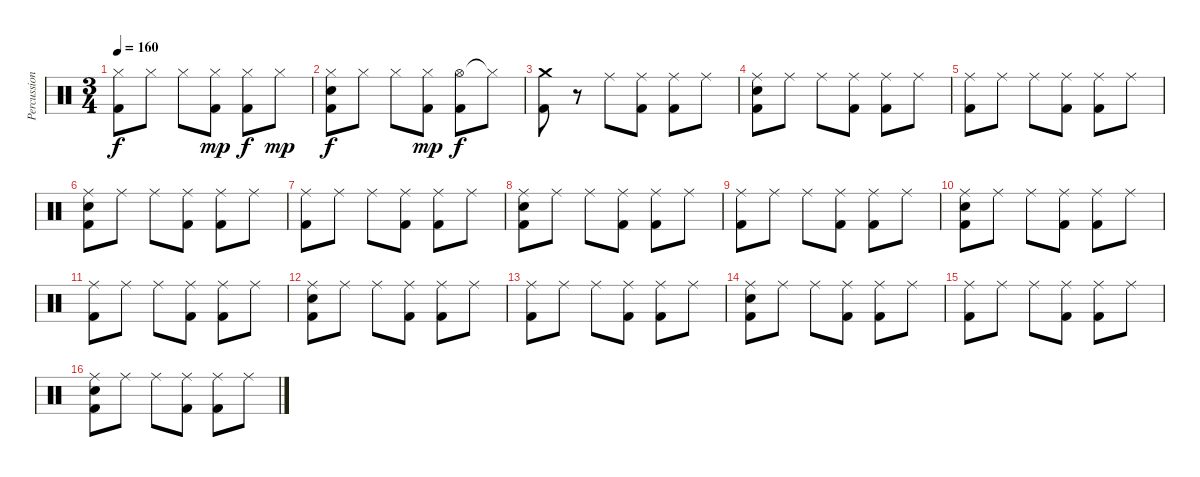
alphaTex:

\track ("Percussion" "Percussion") {instrument percussion}
\staff {score}
\articulation defaults
\ts (3 4)
\tempo 160
\clef neutral
\ks c
("Hi-Hat (closed)" "Kick (hit) 2").8{dy f} "Hi-Hat (closed)".8 "Hi-Hat (closed)".8 ("Hi-Hat (closed)" "Kick (hit) 2").8{dy mp} ("Hi-Hat (closed)" "Kick (hit) 2").8{dy f} "Hi-Hat (closed)".8{dy mp} |
("Hi-Hat (closed)" "Electric Snare (hit)" "Kick (hit) 2").8{dy f} "Hi-Hat (closed)".8 "Hi-Hat (closed)".8 ("Hi-Hat (closed)" "Kick (hit) 2").8{dy mp} ("Hi-Hat (open)" "Kick (hit) 2").8{dy f} "Hi-Hat (closed)"{t}.8 |
("Crash medium (hit)" "Kick (hit) 2").8 r.8 "Ride (middle)".8 ("Ride (middle)" "Kick (hit) 2").8 ("Ride (middle)" "Kick (hit) 2").8 "Ride (middle)".8 |
("Ride (middle)" "Electric Snare (hit)" "Kick (hit) 2").8 "Ride (middle)".8 "Ride (middle)".8 ("Ride (middle)" "Kick (hit) 2").8 ("Ride (middle)" "Kick (hit) 2").8 "Ride (middle)".8 |
("Ride (middle)" "Kick (hit) 2").8 "Ride (middle)".8 "Ride (middle)".8 ("Ride (middle)" "Kick (hit) 2").8 ("Ride (middle)" "Kick (hit) 2").8 "Ride (middle)".8 |
("Ride (middle)" "Electric Snare (hit)" "Kick (hit) 2").8 "Ride (middle)".8 "Ride (middle)".8 ("Ride (middle)" "Kick (hit) 2").8 ("Ride (middle)" "Kick (hit) 2").8 "Ride (middle)".8 |
("Ride (middle)" "Kick (hit) 2").8 "Ride (middle)".8 "Ride (middle)".8 ("Ride (middle)" "Kick (hit) 2").8 ("Ride (middle)" "Kick (hit) 2").8 "Ride (middle)".8 |
("Ride (middle)" "Electric Snare (hit)" "Kick (hit) 2").8 "Ride (middle)".8 "Ride (middle)".8 ("Ride (middle)" "Kick (hit) 2").8 ("Ride (middle)" "Kick (hit) 2").8 "Ride (middle)".8 |
("Ride (middle)" "Kick (hit) 2").8 "Ride (middle)".8 "Ride (middle)".8 ("Ride (middle)" "Kick (hit) 2").8 ("Ride (middle)" "Kick (hit) 2").8 "Ride (middle)".8 |
("Ride (middle)" "Electric Snare (hit)" "Kick (hit) 2").8 "Ride (middle)".8 "Ride (middle)".8 ("Ride (middle)" "Kick (hit) 2").8 ("Ride (middle)" "Kick (hit) 2").8 "Ride (middle)".8 |
("Ride (middle)" "Kick (hit) 2").8 "Ride (middle)".8 "Ride (middle)".8 ("Ride (middle)" "Kick (hit) 2").8 ("Ride (middle)" "Kick (hit) 2").8 "Ride (middle)".8 |
("Ride (middle)" "Electric Snare (hit)" "Kick (hit) 2").8 "Ride (middle)".8 "Ride (middle)".8 ("Ride (middle)" "Kick (hit) 2").8 ("Ride (middle)" "Kick (hit) 2").8 "Ride (middle)".8 |
("Ride (middle)" "Kick (hit) 2").8 "Ride (middle)".8 "Ride (middle)".8 ("Ride (middle)" "Kick (hit) 2").8 ("Ride (middle)" "Kick (hit) 2").8 "Ride (middle)".8 |
("Ride (middle)" "Electric Snare (hit)" "Kick (hit) 2").8 "Ride (middle)".8 "Ride (middle)".8 ("Ride (middle)" "Kick (hit) 2").8 ("Ride (middle)" "Kick (hit) 2").8 "Ride (middle)".8 |
("Ride (middle)" "Kick (hit) 2").8 "Ride (middle)".8 "Ride (middle)".8 ("Ride (middle)" "Kick (hit) 2").8 ("Ride (middle)" "Kick (hit) 2").8 "Ride (middle)".8 |
("Ride (middle)" "Electric Snare (hit)" "Kick (hit) 2").8 "Ride (middle)".8 "Ride (middle)".8 ("Ride (middle)" "Kick (hit) 2").8 ("Ride (middle)" "Kick (hit) 2").8 "Ride (middle)".8
